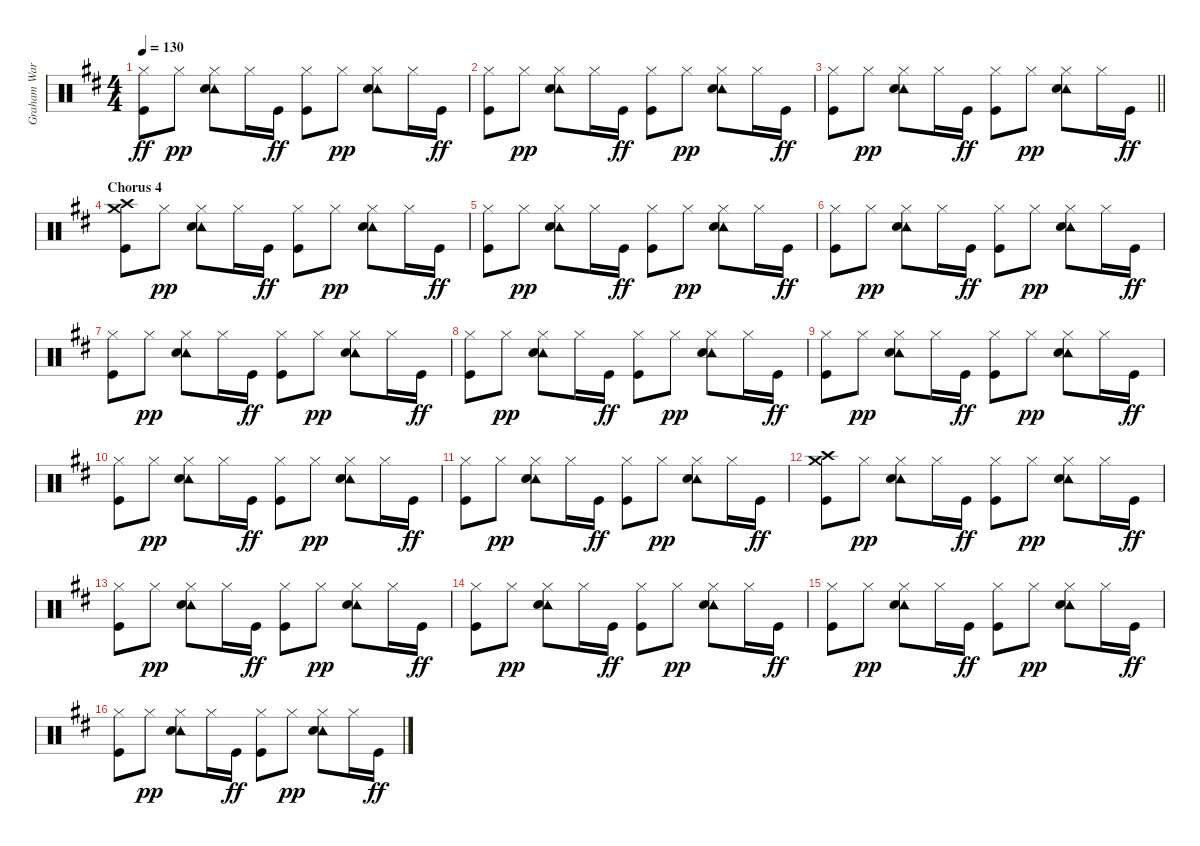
\track ("Graham Ward (DRUMS)" "Graham War") {instrument percussion}
\staff {score}
\articulation defaults
\ts (4 4)
\tempo 130
\clef neutral
\ks d
("Hi-Hat (closed)" "Kick (hit)").8{dy ff} "Hi-Hat (closed)".8{dy pp} ("Tambourine (hit)" "Snare (hit) 2" "Hi-Hat (closed)").8 "Hi-Hat (closed)".16 "Kick (hit)".16{dy ff} ("Hi-Hat (closed)" "Kick (hit)").8 "Hi-Hat (closed)".8{dy pp} ("Tambourine (hit)" "Snare (hit) 2" "Hi-Hat (closed)").8 "Hi-Hat (closed)".16 "Kick (hit)".16{dy ff} |
("Hi-Hat (closed)" "Kick (hit)").8 "Hi-Hat (closed)".8{dy pp} ("Tambourine (hit)" "Snare (hit) 2" "Hi-Hat (closed)").8 "Hi-Hat (closed)".16 "Kick (hit)".16{dy ff} ("Hi-Hat (closed)" "Kick (hit)").8 "Hi-Hat (closed)".8{dy pp} ("Tambourine (hit)" "Snare (hit) 2" "Hi-Hat (closed)").8 "Hi-Hat (closed)".16 "Kick (hit)".16{dy ff} |
\barLineRight lightlight
("Hi-Hat (closed)" "Kick (hit)").8 "Hi-Hat (closed)".8{dy pp} ("Tambourine (hit)" "Snare (hit) 2" "Hi-Hat (closed)").8 "Hi-Hat (closed)".16 "Kick (hit)".16{dy ff} ("Hi-Hat (closed)" "Kick (hit)").8 "Hi-Hat (closed)".8{dy pp} ("Tambourine (hit)" "Snare (hit) 2" "Hi-Hat (closed)").8 "Hi-Hat (closed)".16 "Kick (hit)".16{dy ff} |
\section ("" "Chorus 4")
("Crash medium (hit)" "Crash high (hit)" "Kick (hit)").8 "Hi-Hat (closed)".8{dy pp} ("Tambourine (hit)" "Snare (hit) 2" "Hi-Hat (closed)").8 "Hi-Hat (closed)".16 "Kick (hit)".16{dy ff} ("Hi-Hat (closed)" "Kick (hit)").8 "Hi-Hat (closed)".8{dy pp} ("Tambourine (hit)" "Snare (hit) 2" "Hi-Hat (closed)").8 "Hi-Hat (closed)".16 "Kick (hit)".16{dy ff} |
("Hi-Hat (closed)" "Kick (hit)").8 "Hi-Hat (closed)".8{dy pp} ("Tambourine (hit)" "Snare (hit) 2" "Hi-Hat (closed)").8 "Hi-Hat (closed)".16 "Kick (hit)".16{dy ff} ("Hi-Hat (closed)" "Kick (hit)").8 "Hi-Hat (closed)".8{dy pp} ("Tambourine (hit)" "Snare (hit) 2" "Hi-Hat (closed)").8 "Hi-Hat (closed)".16 "Kick (hit)".16{dy ff} |
("Hi-Hat (closed)" "Kick (hit)").8 "Hi-Hat (closed)".8{dy pp} ("Tambourine (hit)" "Snare (hit) 2" "Hi-Hat (closed)").8 "Hi-Hat (closed)".16 "Kick (hit)".16{dy ff} ("Hi-Hat (closed)" "Kick (hit)").8 "Hi-Hat (closed)".8{dy pp} ("Tambourine (hit)" "Snare (hit) 2" "Hi-Hat (closed)").8 "Hi-Hat (closed)".16 "Kick (hit)".16{dy ff} |
("Hi-Hat (closed)" "Kick (hit)").8 "Hi-Hat (closed)".8{dy pp} ("Tambourine (hit)" "Snare (hit) 2" "Hi-Hat (closed)").8 "Hi-Hat (closed)".16 "Kick (hit)".16{dy ff} ("Hi-Hat (closed)" "Kick (hit)").8 "Hi-Hat (closed)".8{dy pp} ("Tambourine (hit)" "Snare (hit) 2" "Hi-Hat (closed)").8 "Hi-Hat (closed)".16 "Kick (hit)".16{dy ff} |
("Hi-Hat (closed)" "Kick (hit)").8 "Hi-Hat (closed)".8{dy pp} ("Tambourine (hit)" "Snare (hit) 2" "Hi-Hat (closed)").8 "Hi-Hat (closed)".16 "Kick (hit)".16{dy ff} ("Hi-Hat (closed)" "Kick (hit)").8 "Hi-Hat (closed)".8{dy pp} ("Tambourine (hit)" "Snare (hit) 2" "Hi-Hat (closed)").8 "Hi-Hat (closed)".16 "Kick (hit)".16{dy ff} |
("Hi-Hat (closed)" "Kick (hit)").8 "Hi-Hat (closed)".8{dy pp} ("Tambourine (hit)" "Snare (hit) 2" "Hi-Hat (closed)").8 "Hi-Hat (closed)".16 "Kick (hit)".16{dy ff} ("Hi-Hat (closed)" "Kick (hit)").8 "Hi-Hat (closed)".8{dy pp} ("Tambourine (hit)" "Snare (hit) 2" "Hi-Hat (closed)").8 "Hi-Hat (closed)".16 "Kick (hit)".16{dy ff} |
("Hi-Hat (closed)" "Kick (hit)").8 "Hi-Hat (closed)".8{dy pp} ("Tambourine (hit)" "Snare (hit) 2" "Hi-Hat (closed)").8 "Hi-Hat (closed)".16 "Kick (hit)".16{dy ff} ("Hi-Hat (closed)" "Kick (hit)").8 "Hi-Hat (closed)".8{dy pp} ("Tambourine (hit)" "Snare (hit) 2" "Hi-Hat (closed)").8 "Hi-Hat (closed)".16 "Kick (hit)".16{dy ff} |
("Hi-Hat (closed)" "Kick (hit)").8 "Hi-Hat (closed)".8{dy pp} ("Tambourine (hit)" "Snare (hit) 2" "Hi-Hat (closed)").8 "Hi-Hat (closed)".16 "Kick (hit)".16{dy ff} ("Hi-Hat (closed)" "Kick (hit)").8 "Hi-Hat (closed)".8{dy pp} ("Tambourine (hit)" "Snare (hit) 2" "Hi-Hat (closed)").8 "Hi-Hat (closed)".16 "Kick (hit)".16{dy ff} |
("Crash medium (hit)" "Crash high (hit)" "Kick (hit)").8 "Hi-Hat (closed)".8{dy pp} ("Tambourine (hit)" "Snare (hit) 2" "Hi-Hat (closed)").8 "Hi-Hat (closed)".16 "Kick (hit)".16{dy ff} ("Hi-Hat (closed)" "Kick (hit)").8 "Hi-Hat (closed)".8{dy pp} ("Tambourine (hit)" "Snare (hit) 2" "Hi-Hat (closed)").8 "Hi-Hat (closed)".16 "Kick (hit)".16{dy ff} |
("Hi-Hat (closed)" "Kick (hit)").8 "Hi-Hat (closed)".8{dy pp} ("Tambourine (hit)" "Snare (hit) 2" "Hi-Hat (closed)").8 "Hi-Hat (closed)".16 "Kick (hit)".16{dy ff} ("Hi-Hat (closed)" "Kick (hit)").8 "Hi-Hat (closed)".8{dy pp} ("Tambourine (hit)" "Snare (hit) 2" "Hi-Hat (closed)").8 "Hi-Hat (closed)".16 "Kick (hit)".16{dy ff} |
("Hi-Hat (closed)" "Kick (hit)").8 "Hi-Hat (closed)".8{dy pp} ("Tambourine (hit)" "Snare (hit) 2" "Hi-Hat (closed)").8 "Hi-Hat (closed)".16 "Kick (hit)".16{dy ff} ("Hi-Hat (closed)" "Kick (hit)").8 "Hi-Hat (closed)".8{dy pp} ("Tambourine (hit)" "Snare (hit) 2" "Hi-Hat (closed)").8 "Hi-Hat (closed)".16 "Kick (hit)".16{dy ff} |
("Hi-Hat (closed)" "Kick (hit)").8 "Hi-Hat (closed)".8{dy pp} ("Tambourine (hit)" "Snare (hit) 2" "Hi-Hat (closed)").8 "Hi-Hat (closed)".16 "Kick (hit)".16{dy ff} ("Hi-Hat (closed)" "Kick (hit)").8 "Hi-Hat (closed)".8{dy pp} ("Tambourine (hit)" "Snare (hit) 2" "Hi-Hat (closed)").8 "Hi-Hat (closed)".16 "Kick (hit)".16{dy ff} |
("Hi-Hat (closed)" "Kick (hit)").8 "Hi-Hat (closed)".8{dy pp} ("Tambourine (hit)" "Snare (hit) 2" "Hi-Hat (closed)").8 "Hi-Hat (closed)".16 "Kick (hit)".16{dy ff} ("Hi-Hat (closed)" "Kick (hit)").8 "Hi-Hat (closed)".8{dy pp} ("Tambourine (hit)" "Snare (hit) 2" "Hi-Hat (closed)").8 "Hi-Hat (closed)".16 "Kick (hit)".16{dy ff}
